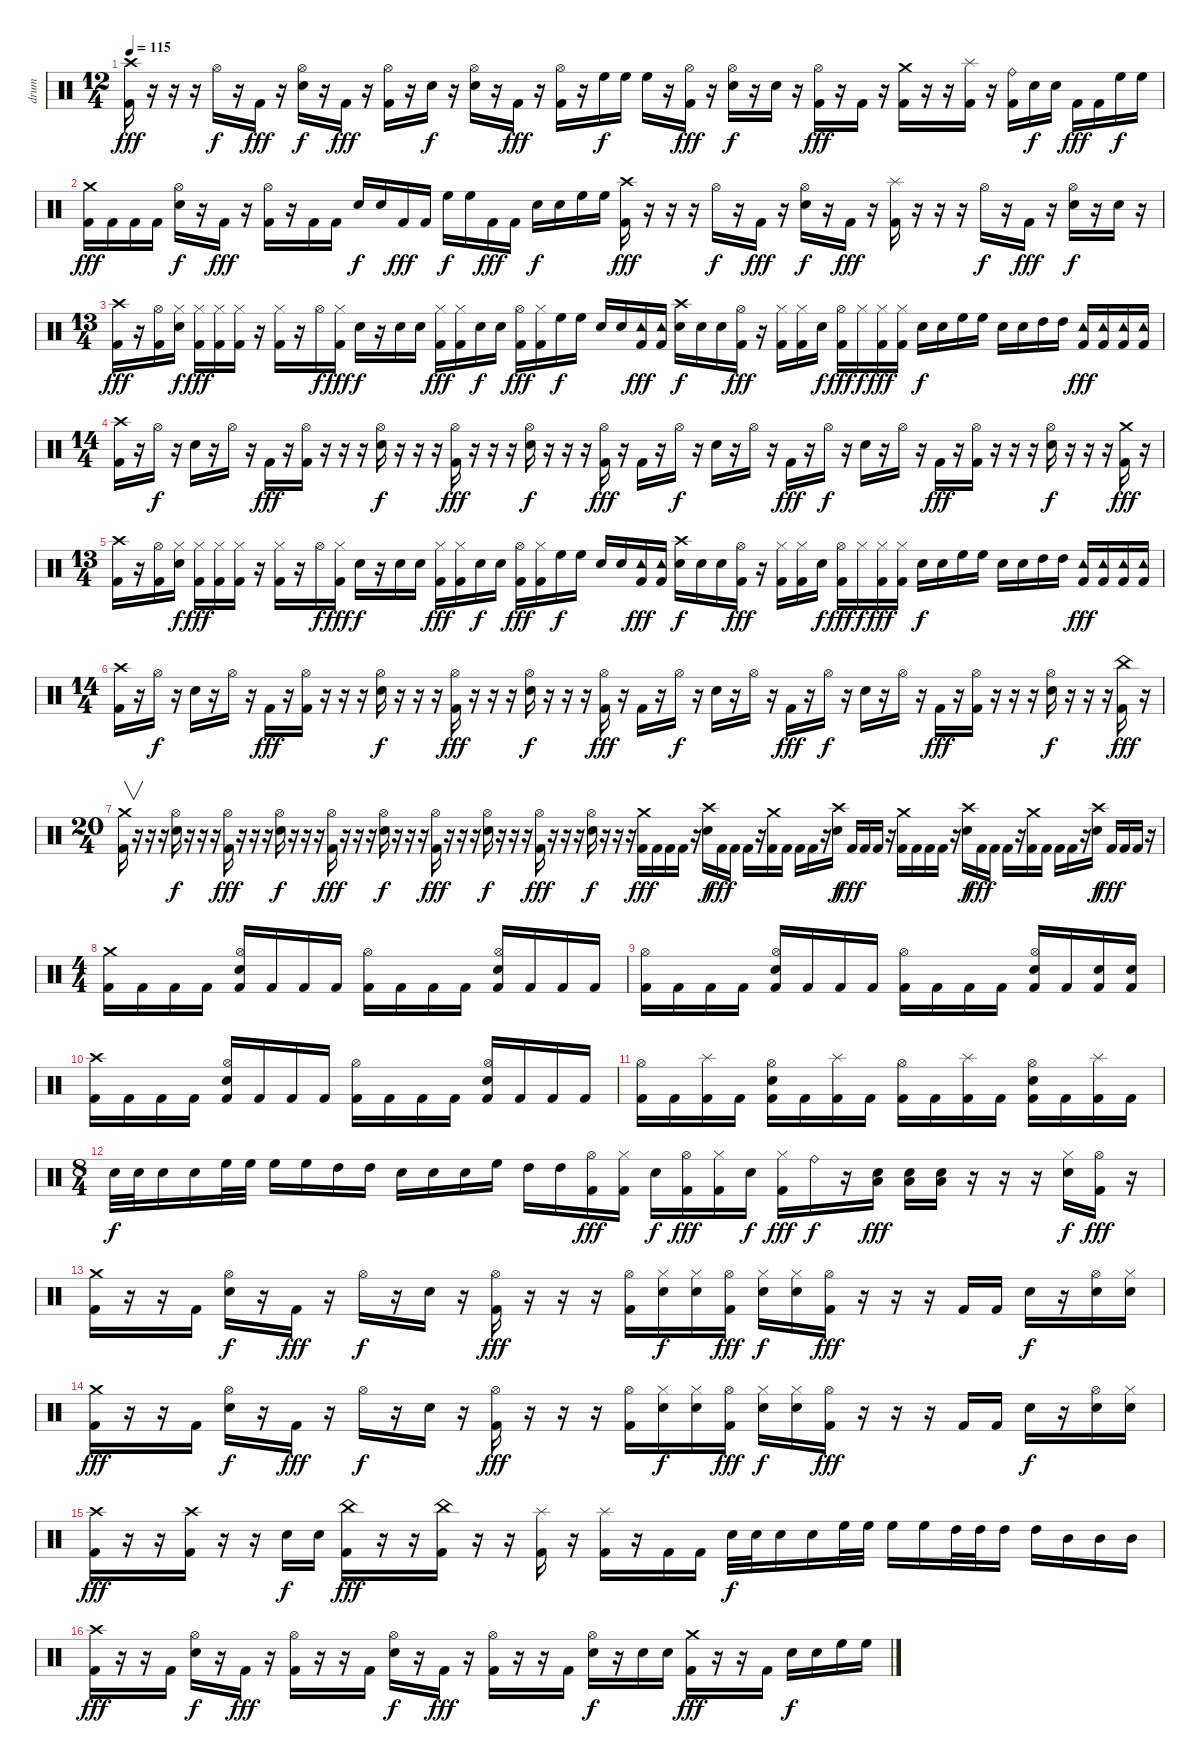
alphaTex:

\track ("drum" "drum") {instrument percussion}
\staff {score}
\articulation defaults
\ts (12 4)
\tempo 115
\clef neutral
\ks c
("Crash high (hit)" "Kick (hit) 2").16{dy fff} r.16 r.16 r.16 "Hi-Hat (open)".16{dy f} r.16 "Kick (hit) 2".16{dy fff} r.16 ("Hi-Hat (open)" "Electric Snare (hit)").16{dy f} r.16 "Kick (hit) 2".16{dy fff} r.16 ("Hi-Hat (open)" "Kick (hit) 2").16 r.16 "Electric Snare (hit)".16{dy f} r.16 ("Hi-Hat (open)" "Electric Snare (hit)").16 r.16 "Kick (hit) 2".16{dy fff} r.16 ("Hi-Hat (open)" "Kick (hit) 2").16 r.16 "High Floor Tom (hit)".16{dy f} "High Floor Tom (hit)".16 "High Floor Tom (hit)".16 r.16 ("Hi-Hat (open)" "Kick (hit) 2").16{dy fff} r.16 ("Hi-Hat (open)" "Electric Snare (hit)").16{dy f} r.16 "Electric Snare (hit)".16 r.16 ("Hi-Hat (open)" "Kick (hit) 2").16{dy fff} r.16 "Kick (hit) 2".16 r.16 ("Crash medium (hit)" "Kick (hit) 2").16 r.16 r.16 ("Splash (hit)" "Kick (hit) 2").16 r.16 ("Ride (bell)" "Kick (hit) 2").16 "Electric Snare (hit)".16{dy f} "Electric Snare (hit)".16 "Kick (hit) 2".16{dy fff} "Kick (hit) 2".16 "High Floor Tom (hit)".16{dy f} "High Floor Tom (hit)".16 |
("Crash medium (hit)" "Kick (hit) 2").16{dy fff} "Kick (hit) 2".16 "Kick (hit) 2".16 "Kick (hit) 2".16 ("Hi-Hat (open)" "Electric Snare (hit)").16{dy f} r.16 "Kick (hit) 2".16{dy fff} r.16 ("Hi-Hat (open)" "Kick (hit) 2").16 r.16 "Kick (hit) 2".16 "Kick (hit) 2".16 "Electric Snare (hit)".16{dy f} "Electric Snare (hit)".16 "Kick (hit) 2".16{dy fff} "Kick (hit) 2".16 "High Floor Tom (hit)".16{dy f} "High Floor Tom (hit)".16 "Kick (hit) 2".16{dy fff} "Kick (hit) 2".16 "Electric Snare (hit)".16{dy f} "Electric Snare (hit)".16 "High Floor Tom (hit)".16 "High Floor Tom (hit)".16 ("Crash high (hit)" "Kick (hit) 2").16{dy fff} r.16 r.16 r.16 "Hi-Hat (open)".16{dy f} r.16 "Kick (hit) 2".16{dy fff} r.16 ("Hi-Hat (open)" "Electric Snare (hit)").16{dy f} r.16 "Kick (hit) 2".16{dy fff} r.16 ("Splash (hit)" "Kick (hit) 2").16 r.16 r.16 r.16 "Hi-Hat (open)".16{dy f} r.16 "Kick (hit) 2".16{dy fff} r.16 ("Hi-Hat (open)" "Electric Snare (hit)").16{dy f} r.16 "Electric Snare (hit)".16 r.16 |
\ts (13 4)
("Crash high (hit)" "Kick (hit) 2").16{dy fff} r.16 ("Hi-Hat (open)" "Kick (hit) 2").16 ("Hi-Hat (closed)" "Electric Snare (hit)").16{dy f} ("Hi-Hat (closed)" "Kick (hit) 2").16{dy fff} ("Hi-Hat (closed)" "Kick (hit) 2").16 ("Hi-Hat (closed)" "Kick (hit) 2").16 r.16 ("Hi-Hat (closed)" "Kick (hit) 2").16 r.16 "Hi-Hat (open)".16{dy f} ("Hi-Hat (closed)" "Kick (hit) 2").16{dy fff} "Electric Snare (hit)".16{dy f} r.16 "Electric Snare (hit)".16 "Electric Snare (hit)".16 ("Hi-Hat (closed)" "Kick (hit) 2").16{dy fff} ("Hi-Hat (closed)" "Kick (hit) 2").16 "Electric Snare (hit)".16{dy f} "Electric Snare (hit)".16 ("Hi-Hat (open)" "Kick (hit) 2").16{dy fff} ("Hi-Hat (closed)" "Kick (hit) 2").16 "High Floor Tom (hit)".16{dy f} "High Floor Tom (hit)".16 "Electric Snare (hit)".16 "Electric Snare (hit)".16 ("Tambourine (hit)" "Kick (hit) 2").16{dy fff} ("Tambourine (hit)" "Kick (hit) 2").16 ("Crash high (hit)" "Electric Snare (hit)").16{dy f} "Electric Snare (hit)".16 "Electric Snare (hit)".16 ("Hi-Hat (open)" "Kick (hit) 2").16{dy fff} r.16 ("Hi-Hat (closed)" "Kick (hit) 2").16 ("Hi-Hat (closed)" "Kick (hit) 2").16 "Electric Snare (hit)".16{dy f} ("Hi-Hat (open)" "Kick (hit) 2").16{dy fff} "Hi-Hat (closed)".16{dy f} ("Hi-Hat (closed)" "Kick (hit) 2").16{dy fff} ("Hi-Hat (closed)" "Kick (hit) 2").16 "Electric Snare (hit)".16{dy f} "Electric Snare (hit)".16 "High Floor Tom (hit)".16 "High Floor Tom (hit)".16 "Electric Snare (hit)".16 "Electric Snare (hit)".16 "High Tom (hit)".16 "High Tom (hit)".16 ("Tambourine (hit)" "Kick (hit) 2").16{dy fff} ("Tambourine (hit)" "Kick (hit) 2").16 ("Tambourine (hit)" "Kick (hit) 2").16 ("Tambourine (hit)" "Kick (hit) 2").16 |
\ts (14 4)
("Crash high (hit)" "Kick (hit) 2").16 r.16 "Hi-Hat (open)".16{dy f} r.16 "Electric Snare (hit)".16 r.16 "Hi-Hat (open)".16 r.16 "Kick (hit) 2".16{dy fff} r.16 ("Hi-Hat (open)" "Kick (hit) 2").16 r.16 r.16 r.16 ("Hi-Hat (open)" "Electric Snare (hit)").16{dy f} r.16 r.16 r.16 ("Hi-Hat (open)" "Kick (hit) 2").16{dy fff} r.16 r.16 r.16 ("Hi-Hat (open)" "Electric Snare (hit)").16{dy f} r.16 r.16 r.16 ("Hi-Hat (open)" "Kick (hit) 2").16{dy fff} r.16 "Kick (hit) 2".16 r.16 "Hi-Hat (open)".16{dy f} r.16 "Electric Snare (hit)".16 r.16 "Hi-Hat (open)".16 r.16 "Kick (hit) 2".16{dy fff} r.16 "Hi-Hat (open)".16{dy f} r.16 "Electric Snare (hit)".16 r.16 "Hi-Hat (open)".16 r.16 "Kick (hit) 2".16{dy fff} r.16 ("Hi-Hat (open)" "Kick (hit) 2").16 r.16 r.16 r.16 ("Hi-Hat (open)" "Electric Snare (hit)").16{dy f} r.16 r.16 r.16 ("Crash medium (hit)" "Kick (hit) 2").16{dy fff} r.16 |
\ts (13 4)
("Crash high (hit)" "Kick (hit) 2").16 r.16 ("Hi-Hat (open)" "Kick (hit) 2").16 ("Hi-Hat (closed)" "Electric Snare (hit)").16{dy f} ("Hi-Hat (closed)" "Kick (hit) 2").16{dy fff} ("Hi-Hat (closed)" "Kick (hit) 2").16 ("Hi-Hat (closed)" "Kick (hit) 2").16 r.16 ("Hi-Hat (closed)" "Kick (hit) 2").16 r.16 "Hi-Hat (open)".16{dy f} ("Hi-Hat (closed)" "Kick (hit) 2").16{dy fff} "Electric Snare (hit)".16{dy f} r.16 "Electric Snare (hit)".16 "Electric Snare (hit)".16 ("Hi-Hat (closed)" "Kick (hit) 2").16{dy fff} ("Hi-Hat (closed)" "Kick (hit) 2").16 "Electric Snare (hit)".16{dy f} "Electric Snare (hit)".16 ("Hi-Hat (open)" "Kick (hit) 2").16{dy fff} ("Hi-Hat (closed)" "Kick (hit) 2").16 "High Floor Tom (hit)".16{dy f} "High Floor Tom (hit)".16 "Electric Snare (hit)".16 "Electric Snare (hit)".16 ("Tambourine (hit)" "Kick (hit) 2").16{dy fff} ("Tambourine (hit)" "Kick (hit) 2").16 ("Crash high (hit)" "Electric Snare (hit)").16{dy f} "Electric Snare (hit)".16 "Electric Snare (hit)".16 ("Hi-Hat (open)" "Kick (hit) 2").16{dy fff} r.16 ("Hi-Hat (closed)" "Kick (hit) 2").16 ("Hi-Hat (closed)" "Kick (hit) 2").16 "Electric Snare (hit)".16{dy f} ("Hi-Hat (open)" "Kick (hit) 2").16{dy fff} "Hi-Hat (closed)".16{dy f} ("Hi-Hat (closed)" "Kick (hit) 2").16{dy fff} ("Hi-Hat (closed)" "Kick (hit) 2").16 "Electric Snare (hit)".16{dy f} "Electric Snare (hit)".16 "High Floor Tom (hit)".16 "High Floor Tom (hit)".16 "Electric Snare (hit)".16 "Electric Snare (hit)".16 "High Tom (hit)".16 "High Tom (hit)".16 ("Tambourine (hit)" "Kick (hit) 2").16{dy fff} ("Tambourine (hit)" "Kick (hit) 2").16 ("Tambourine (hit)" "Kick (hit) 2").16 ("Tambourine (hit)" "Kick (hit) 2").16 |
\ts (14 4)
("Crash high (hit)" "Kick (hit) 2").16 r.16 "Hi-Hat (open)".16{dy f} r.16 "Electric Snare (hit)".16 r.16 "Hi-Hat (open)".16 r.16 "Kick (hit) 2".16{dy fff} r.16 ("Hi-Hat (open)" "Kick (hit) 2").16 r.16 r.16 r.16 ("Hi-Hat (open)" "Electric Snare (hit)").16{dy f} r.16 r.16 r.16 ("Hi-Hat (open)" "Kick (hit) 2").16{dy fff} r.16 r.16 r.16 ("Hi-Hat (open)" "Electric Snare (hit)").16{dy f} r.16 r.16 r.16 ("Hi-Hat (open)" "Kick (hit) 2").16{dy fff} r.16 "Kick (hit) 2".16 r.16 "Hi-Hat (open)".16{dy f} r.16 "Electric Snare (hit)".16 r.16 "Hi-Hat (open)".16 r.16 "Kick (hit) 2".16{dy fff} r.16 "Hi-Hat (open)".16{dy f} r.16 "Electric Snare (hit)".16 r.16 "Hi-Hat (open)".16 r.16 "Kick (hit) 2".16{dy fff} r.16 ("Hi-Hat (open)" "Kick (hit) 2").16 r.16 r.16 r.16 ("Hi-Hat (open)" "Electric Snare (hit)").16{dy f} r.16 r.16 r.16 ("China (hit)" "Kick (hit) 2").16{dy fff} r.16 |
\ts (20 4)
("Crash medium (hit)" "Kick (hit) 2").16{v} r.16 r.16 r.16 ("Hi-Hat (open)" "Electric Snare (hit)").16{dy f} r.16 r.16 r.16 ("Hi-Hat (open)" "Kick (hit) 2").16{dy fff} r.16 r.16 r.16 ("Hi-Hat (open)" "Electric Snare (hit)").16{dy f} r.16 r.16 r.16 ("Hi-Hat (open)" "Kick (hit) 2").16{dy fff} r.16 r.16 r.16 ("Hi-Hat (open)" "Electric Snare (hit)").16{dy f} r.16 r.16 r.16 ("Hi-Hat (open)" "Kick (hit) 2").16{dy fff} r.16 r.16 r.16 ("Hi-Hat (open)" "Electric Snare (hit)").16{dy f} r.16 r.16 r.16 ("Hi-Hat (open)" "Kick (hit) 2").16{dy fff} r.16 r.16 r.16 ("Hi-Hat (open)" "Electric Snare (hit)").16{dy f} r.16 r.16 r.16 ("Crash medium (hit)" "Kick (hit) 2").16{dy fff} "Kick (hit) 2".16 "Kick (hit) 2".16 "Kick (hit) 2".16 r.16 ("Crash high (hit)" "Electric Snare (hit)").16{dy f} "Kick (hit) 2".16{dy fff} "Kick (hit) 2".16 "Kick (hit) 2".16 r.16 ("Crash medium (hit)" "Kick (hit) 2").16 "Kick (hit) 2".16 "Kick (hit) 2".16 "Kick (hit) 2".16 r.16 ("Crash high (hit)" "Electric Snare (hit)").16{dy f} "Kick (hit) 2".16{dy fff} "Kick (hit) 2".16 "Kick (hit) 2".16 r.16 ("Crash medium (hit)" "Kick (hit) 2").16 "Kick (hit) 2".16 "Kick (hit) 2".16 "Kick (hit) 2".16 r.16 ("Crash high (hit)" "Electric Snare (hit)").16{dy f} "Kick (hit) 2".16{dy fff} "Kick (hit) 2".16 "Kick (hit) 2".16 r.16 ("Crash medium (hit)" "Kick (hit) 2").16 "Kick (hit) 2".16 "Kick (hit) 2".16 "Kick (hit) 2".16 r.16 ("Crash high (hit)" "Electric Snare (hit)").16{dy f} "Kick (hit) 2".16{dy fff} "Kick (hit) 2".16 "Kick (hit) 2".16 r.16 |
\ts (4 4)
("Crash medium (hit)" "Kick (hit) 2").16 "Kick (hit) 2".16 "Kick (hit) 2".16 "Kick (hit) 2".16 ("Hi-Hat (open)" "Electric Snare (hit)" "Kick (hit) 2").16 "Kick (hit) 2".16 "Kick (hit) 2".16 "Kick (hit) 2".16 ("Hi-Hat (open)" "Kick (hit) 2").16 "Kick (hit) 2".16 "Kick (hit) 2".16 "Kick (hit) 2".16 ("Hi-Hat (open)" "Electric Snare (hit)" "Kick (hit) 2").16 "Kick (hit) 2".16 "Kick (hit) 2".16 "Kick (hit) 2".16 |
("Hi-Hat (open)" "Kick (hit) 2").16 "Kick (hit) 2".16 "Kick (hit) 2".16 "Kick (hit) 2".16 ("Hi-Hat (open)" "Electric Snare (hit)" "Kick (hit) 2").16 "Kick (hit) 2".16 "Kick (hit) 2".16 "Kick (hit) 2".16 ("Hi-Hat (open)" "Kick (hit) 2").16 "Kick (hit) 2".16 "Kick (hit) 2".16 "Kick (hit) 2".16 ("Hi-Hat (open)" "Electric Snare (hit)" "Kick (hit) 2").16 "Kick (hit) 2".16 ("Electric Snare (hit)" "Kick (hit) 2").16 ("Electric Snare (hit)" "Kick (hit) 2").16 |
("Crash high (hit)" "Kick (hit) 2").16 "Kick (hit) 2".16 "Kick (hit) 2".16 "Kick (hit) 2".16 ("Hi-Hat (open)" "Electric Snare (hit)" "Kick (hit) 2").16 "Kick (hit) 2".16 "Kick (hit) 2".16 "Kick (hit) 2".16 ("Hi-Hat (open)" "Kick (hit) 2").16 "Kick (hit) 2".16 "Kick (hit) 2".16 "Kick (hit) 2".16 ("Hi-Hat (open)" "Electric Snare (hit)" "Kick (hit) 2").16 "Kick (hit) 2".16 "Kick (hit) 2".16 "Kick (hit) 2".16 |
("Hi-Hat (open)" "Kick (hit) 2").16 "Kick (hit) 2".16 ("Splash (hit)" "Kick (hit) 2").16 "Kick (hit) 2".16 ("Hi-Hat (open)" "Electric Snare (hit)" "Kick (hit) 2").16 "Kick (hit) 2".16 ("Splash (hit)" "Kick (hit) 2").16 "Kick (hit) 2".16 ("Hi-Hat (open)" "Kick (hit) 2").16 "Kick (hit) 2".16 ("Splash (hit)" "Kick (hit) 2").16 "Kick (hit) 2".16 ("Hi-Hat (open)" "Electric Snare (hit)" "Kick (hit) 2").16 "Kick (hit) 2".16 ("Splash (hit)" "Kick (hit) 2").16 "Kick (hit) 2".16 |
\ts (8 4)
"Electric Snare (hit)".32{dy f} "Electric Snare (hit)".32 "Electric Snare (hit)".16 "Electric Snare (hit)".16 "High Floor Tom (hit)".32 "High Floor Tom (hit)".32 "High Floor Tom (hit)".16 "High Floor Tom (hit)".16 "High Tom (hit)".16 "High Tom (hit)".16 "Electric Snare (hit)".16 "Electric Snare (hit)".16 "Electric Snare (hit)".16 "High Floor Tom (hit)".16 "High Tom (hit)".16 "High Tom (hit)".16 ("Hi-Hat (open)" "Kick (hit) 2").16{dy fff} ("Hi-Hat (closed)" "Kick (hit) 2").16 "Electric Snare (hit)".16{dy f} ("Hi-Hat (open)" "Kick (hit) 2").16{dy fff} ("Hi-Hat (closed)" "Kick (hit) 2").16 "Electric Snare (hit)".16{dy f} ("Hi-Hat (closed)" "Kick (hit) 2").16{dy fff} "Ride (bell)".16{dy f} r.16 ("Low Floor Tom (hit)" "Electric Snare (hit)").16{dy fff} ("Low Floor Tom (hit)" "Electric Snare (hit)").16 ("Low Floor Tom (hit)" "Electric Snare (hit)").16 r.16 r.16 r.16 ("Hi-Hat (closed)" "Electric Snare (hit)").16{dy f} ("Hi-Hat (open)" "Kick (hit) 2").16{dy fff} r.16 |
("Crash medium (hit)" "Kick (hit) 2").16 r.16 r.16 "Kick (hit) 2".16 ("Hi-Hat (open)" "Electric Snare (hit)").16{dy f} r.16 "Kick (hit) 2".16{dy fff} r.16 "Hi-Hat (open)".16{dy f} r.16 "Electric Snare (hit)".16 r.16 ("Hi-Hat (open)" "Kick (hit) 2").16{dy fff} r.16 r.16 r.16 ("Hi-Hat (open)" "Kick (hit) 2").16 ("Hi-Hat (closed)" "Electric Snare (hit)").16{dy f} ("Hi-Hat (closed)" "Electric Snare (hit)").16 ("Hi-Hat (open)" "Kick (hit) 2").16{dy fff} ("Hi-Hat (closed)" "Electric Snare (hit)").16{dy f} ("Hi-Hat (closed)" "Electric Snare (hit)").16 ("Hi-Hat (open)" "Kick (hit) 2").16{dy fff} r.16 r.16 r.16 "Kick (hit) 2".16 "Kick (hit) 2".16 "Electric Snare (hit)".16{dy f} r.16 ("Hi-Hat (open)" "Electric Snare (hit)").16 ("Hi-Hat (closed)" "Electric Snare (hit)").16 |
("Crash medium (hit)" "Kick (hit) 2").16{dy fff} r.16 r.16 "Kick (hit) 2".16 ("Hi-Hat (open)" "Electric Snare (hit)").16{dy f} r.16 "Kick (hit) 2".16{dy fff} r.16 "Hi-Hat (open)".16{dy f} r.16 "Electric Snare (hit)".16 r.16 ("Hi-Hat (open)" "Kick (hit) 2").16{dy fff} r.16 r.16 r.16 ("Hi-Hat (open)" "Kick (hit) 2").16 ("Hi-Hat (closed)" "Electric Snare (hit)").16{dy f} ("Hi-Hat (closed)" "Electric Snare (hit)").16 ("Hi-Hat (open)" "Kick (hit) 2").16{dy fff} ("Hi-Hat (closed)" "Electric Snare (hit)").16{dy f} ("Hi-Hat (closed)" "Electric Snare (hit)").16 ("Hi-Hat (open)" "Kick (hit) 2").16{dy fff} r.16 r.16 r.16 "Kick (hit) 2".16 "Kick (hit) 2".16 "Electric Snare (hit)".16{dy f} r.16 ("Hi-Hat (open)" "Electric Snare (hit)").16 ("Hi-Hat (closed)" "Electric Snare (hit)").16 |
("Crash high (hit)" "Kick (hit) 2").16{dy fff} r.16 r.16 ("Crash high (hit)" "Kick (hit) 2").16 r.16 r.16 "Electric Snare (hit)".16{dy f} "Electric Snare (hit)".16 ("China (hit)" "Kick (hit) 2").16{dy fff} r.16 r.16 ("China (hit)" "Kick (hit) 2").16 r.16 r.16 ("Splash (hit)" "Kick (hit) 2").16 r.16 ("Splash (hit)" "Kick (hit) 2").16 r.16 "Kick (hit) 2".16 "Kick (hit) 2".16 "Electric Snare (hit)".32{dy f} "Electric Snare (hit)".32 "Electric Snare (hit)".16 "Electric Snare (hit)".16 "High Floor Tom (hit)".32 "High Floor Tom (hit)".32 "High Floor Tom (hit)".16 "High Floor Tom (hit)".16 "High Tom (hit)".32 "High Tom (hit)".32 "High Tom (hit)".16 "High Tom (hit)".16 "Mid Tom (hit)".16 "Mid Tom (hit)".16 "Mid Tom (hit)".16 |
("Crash high (hit)" "Kick (hit) 2").16{dy fff} r.16 r.16 "Kick (hit) 2".16 ("Hi-Hat (open)" "Electric Snare (hit)").16{dy f} r.16 "Kick (hit) 2".16{dy fff} r.16 ("Hi-Hat (open)" "Kick (hit) 2").16 r.16 r.16 "Kick (hit) 2".16 ("Hi-Hat (open)" "Electric Snare (hit)").16{dy f} r.16 "Kick (hit) 2".16{dy fff} r.16 ("Hi-Hat (open)" "Kick (hit) 2").16 r.16 r.16 "Kick (hit) 2".16 ("Hi-Hat (open)" "Electric Snare (hit)").16{dy f} r.16 "Electric Snare (hit)".16 "Electric Snare (hit)".16 ("Crash medium (hit)" "Kick (hit) 2").16{dy fff} r.16 r.16 "Kick (hit) 2".16 "Electric Snare (hit)".16{dy f} "Electric Snare (hit)".16 "High Floor Tom (hit)".16 "High Floor Tom (hit)".16
